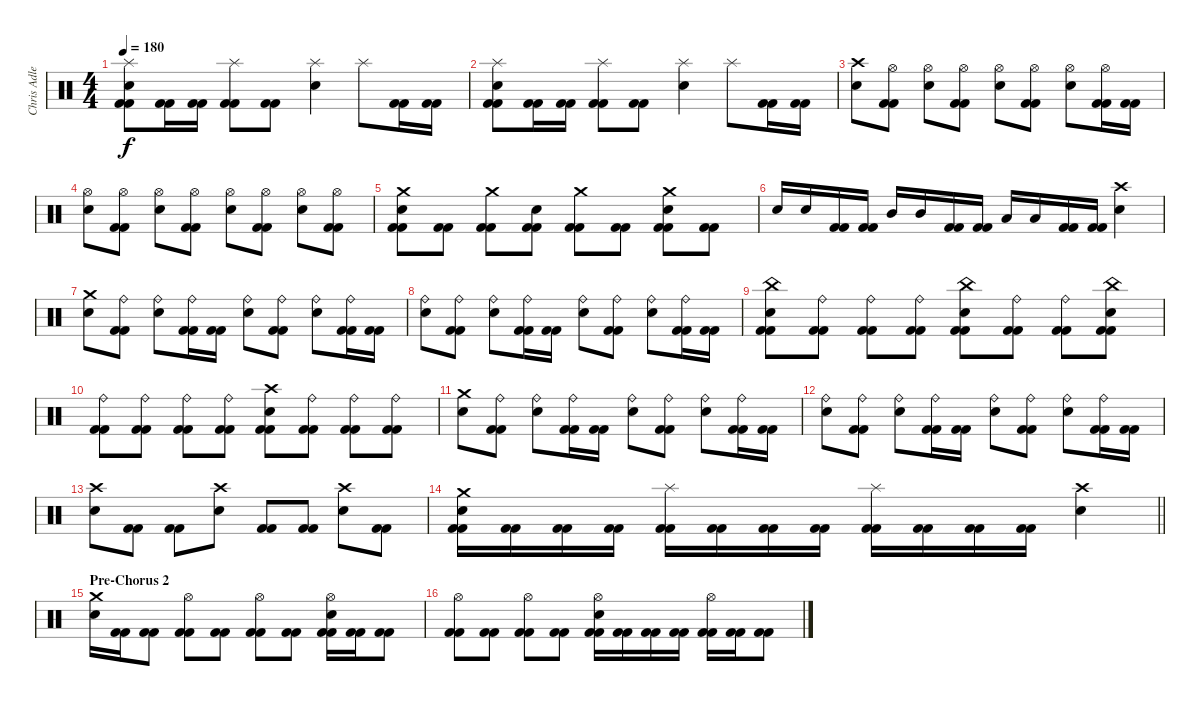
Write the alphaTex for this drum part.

\track ("Chris Adler" "Chris Adle") {instrument percussion}
\staff {score}
\articulation defaults
\ts (4 4)
\tempo 180
\clef neutral
\ks c
("Splash (hit)" "Electric Snare (hit)" "Kick (hit) 2" "Kick (hit) 2").8{dy f} ("Kick (hit) 2" "Kick (hit) 2").16 ("Kick (hit) 2" "Kick (hit) 2").16 ("Splash (hit)" "Kick (hit) 2" "Kick (hit) 2").8 ("Kick (hit) 2" "Kick (hit) 2").8 ("Splash (hit)" "Electric Snare (hit)").4 "Splash (hit)".8 ("Kick (hit) 2" "Kick (hit) 2").16 ("Kick (hit) 2" "Kick (hit) 2").16 |
("Splash (hit)" "Electric Snare (hit)" "Kick (hit) 2" "Kick (hit) 2").8 ("Kick (hit) 2" "Kick (hit) 2").16 ("Kick (hit) 2" "Kick (hit) 2").16 ("Splash (hit)" "Kick (hit) 2" "Kick (hit) 2").8 ("Kick (hit) 2" "Kick (hit) 2").8 ("Splash (hit)" "Electric Snare (hit)").4 "Splash (hit)".8 ("Kick (hit) 2" "Kick (hit) 2").16 ("Kick (hit) 2" "Kick (hit) 2").16 |
("Crash high (hit)" "Electric Snare (hit)").8 ("Hi-Hat (open)" "Kick (hit) 2" "Kick (hit) 2").8 ("Hi-Hat (open)" "Electric Snare (hit)").8 ("Hi-Hat (open)" "Kick (hit) 2" "Kick (hit) 2").8 ("Hi-Hat (open)" "Electric Snare (hit)").8 ("Hi-Hat (open)" "Kick (hit) 2" "Kick (hit) 2").8 ("Hi-Hat (open)" "Electric Snare (hit)").8 ("Hi-Hat (open)" "Kick (hit) 2" "Kick (hit) 2").16 ("Kick (hit) 2" "Kick (hit) 2").16 |
("Hi-Hat (open)" "Electric Snare (hit)").8 ("Hi-Hat (open)" "Kick (hit) 2" "Kick (hit) 2").8 ("Hi-Hat (open)" "Electric Snare (hit)").8 ("Hi-Hat (open)" "Kick (hit) 2" "Kick (hit) 2").8 ("Hi-Hat (open)" "Electric Snare (hit)").8 ("Hi-Hat (open)" "Kick (hit) 2" "Kick (hit) 2").8 ("Hi-Hat (open)" "Electric Snare (hit)").8 ("Hi-Hat (open)" "Kick (hit) 2" "Kick (hit) 2").8 |
("Crash medium (hit)" "Electric Snare (hit)" "Kick (hit) 2" "Kick (hit) 2").8 ("Kick (hit) 2" "Kick (hit) 2").8 ("Crash medium (hit)" "Kick (hit) 2" "Kick (hit) 2").8 ("Electric Snare (hit)" "Kick (hit) 2" "Kick (hit) 2").8 ("Crash medium (hit)" "Kick (hit) 2" "Kick (hit) 2").8 ("Kick (hit) 2" "Kick (hit) 2").8 ("Crash medium (hit)" "Electric Snare (hit)" "Kick (hit) 2" "Kick (hit) 2").8 ("Kick (hit) 2" "Kick (hit) 2").8 |
"Electric Snare (hit)".16 "Electric Snare (hit)".16 ("Kick (hit) 2" "Kick (hit) 2").16 ("Kick (hit) 2" "Kick (hit) 2").16 "Mid Tom (hit)".16 "Mid Tom (hit)".16 ("Kick (hit) 2" "Kick (hit) 2").16 ("Kick (hit) 2" "Kick (hit) 2").16 "Low Tom (hit)".16 "Low Tom (hit)".16 ("Kick (hit) 2" "Kick (hit) 2").16 ("Kick (hit) 2" "Kick (hit) 2").16 ("Crash high (hit)" "Electric Snare (hit)").4 |
("Crash medium (hit)" "Electric Snare (hit)").8 ("Ride (bell)" "Kick (hit) 2" "Kick (hit) 2").8 ("Ride (bell)" "Electric Snare (hit)").8 ("Ride (bell)" "Kick (hit) 2" "Kick (hit) 2").16 ("Kick (hit) 2" "Kick (hit) 2").16 ("Ride (bell)" "Electric Snare (hit)").8 ("Ride (bell)" "Kick (hit) 2" "Kick (hit) 2").8 ("Ride (bell)" "Electric Snare (hit)").8 ("Ride (bell)" "Kick (hit) 2" "Kick (hit) 2").16 ("Kick (hit) 2" "Kick (hit) 2").16 |
("Ride (bell)" "Electric Snare (hit)").8 ("Ride (bell)" "Kick (hit) 2" "Kick (hit) 2").8 ("Ride (bell)" "Electric Snare (hit)").8 ("Ride (bell)" "Kick (hit) 2" "Kick (hit) 2").16 ("Kick (hit) 2" "Kick (hit) 2").16 ("Ride (bell)" "Electric Snare (hit)").8 ("Ride (bell)" "Kick (hit) 2" "Kick (hit) 2").8 ("Ride (bell)" "Electric Snare (hit)").8 ("Ride (bell)" "Kick (hit) 2" "Kick (hit) 2").16 ("Kick (hit) 2" "Kick (hit) 2").16 |
("China (hit)" "Electric Snare (hit)" "Kick (hit) 2" "Kick (hit) 2").8 ("Ride (bell)" "Kick (hit) 2" "Kick (hit) 2").8 ("Ride (bell)" "Kick (hit) 2" "Kick (hit) 2").8 ("Ride (bell)" "Kick (hit) 2" "Kick (hit) 2").8 ("China (hit)" "Electric Snare (hit)" "Kick (hit) 2" "Kick (hit) 2").8 ("Ride (bell)" "Kick (hit) 2" "Kick (hit) 2").8 ("Ride (bell)" "Kick (hit) 2" "Kick (hit) 2").8 ("China (hit)" "Electric Snare (hit)" "Kick (hit) 2" "Kick (hit) 2").8 |
("Ride (bell)" "Kick (hit) 2" "Kick (hit) 2").8 ("Ride (bell)" "Kick (hit) 2" "Kick (hit) 2").8 ("Ride (bell)" "Kick (hit) 2" "Kick (hit) 2").8 ("Ride (bell)" "Kick (hit) 2" "Kick (hit) 2").8 ("Crash high (hit)" "Electric Snare (hit)" "Kick (hit) 2" "Kick (hit) 2").8 ("Ride (bell)" "Kick (hit) 2" "Kick (hit) 2").8 ("Ride (bell)" "Kick (hit) 2" "Kick (hit) 2").8 ("Ride (bell)" "Kick (hit) 2" "Kick (hit) 2").8 |
("Crash medium (hit)" "Electric Snare (hit)").8 ("Ride (bell)" "Kick (hit) 2" "Kick (hit) 2").8 ("Ride (bell)" "Electric Snare (hit)").8 ("Ride (bell)" "Kick (hit) 2" "Kick (hit) 2").16 ("Kick (hit) 2" "Kick (hit) 2").16 ("Ride (bell)" "Electric Snare (hit)").8 ("Ride (bell)" "Kick (hit) 2" "Kick (hit) 2").8 ("Ride (bell)" "Electric Snare (hit)").8 ("Ride (bell)" "Kick (hit) 2" "Kick (hit) 2").16 ("Kick (hit) 2" "Kick (hit) 2").16 |
("Ride (bell)" "Electric Snare (hit)").8 ("Ride (bell)" "Kick (hit) 2" "Kick (hit) 2").8 ("Ride (bell)" "Electric Snare (hit)").8 ("Ride (bell)" "Kick (hit) 2" "Kick (hit) 2").16 ("Kick (hit) 2" "Kick (hit) 2").16 ("Ride (bell)" "Electric Snare (hit)").8 ("Ride (bell)" "Kick (hit) 2" "Kick (hit) 2").8 ("Ride (bell)" "Electric Snare (hit)").8 ("Ride (bell)" "Kick (hit) 2" "Kick (hit) 2").16 ("Kick (hit) 2" "Kick (hit) 2").16 |
("Crash high (hit)" "Electric Snare (hit)").8 ("Kick (hit) 2" "Kick (hit) 2").8 ("Kick (hit) 2" "Kick (hit) 2").8 ("Crash high (hit)" "Electric Snare (hit)").8 ("Kick (hit) 2" "Kick (hit) 2").8 ("Kick (hit) 2" "Kick (hit) 2").8 ("Crash high (hit)" "Electric Snare (hit)").8 ("Kick (hit) 2" "Kick (hit) 2").8 |
\barLineRight lightlight
("Crash medium (hit)" "Electric Snare (hit)" "Kick (hit) 2" "Kick (hit) 2").16 ("Kick (hit) 2" "Kick (hit) 2").16 ("Kick (hit) 2" "Kick (hit) 2").16 ("Kick (hit) 2" "Kick (hit) 2").16 ("Splash (hit)" "Kick (hit) 2" "Kick (hit) 2").16 ("Kick (hit) 2" "Kick (hit) 2").16 ("Kick (hit) 2" "Kick (hit) 2").16 ("Kick (hit) 2" "Kick (hit) 2").16 ("Splash (hit)" "Kick (hit) 2" "Kick (hit) 2").16 ("Kick (hit) 2" "Kick (hit) 2").16 ("Kick (hit) 2" "Kick (hit) 2").16 ("Kick (hit) 2" "Kick (hit) 2").16 ("Crash high (hit)" "Electric Snare (hit)").4 |
\section ("" "Pre-Chorus 2")
("Crash medium (hit)" "Electric Snare (hit)").16 ("Kick (hit) 2" "Kick (hit) 2").16 ("Kick (hit) 2" "Kick (hit) 2").8 ("Hi-Hat (open)" "Kick (hit) 2" "Kick (hit) 2").8 ("Kick (hit) 2" "Kick (hit) 2").8 ("Hi-Hat (open)" "Kick (hit) 2" "Kick (hit) 2").8 ("Kick (hit) 2" "Kick (hit) 2").8 ("Hi-Hat (open)" "Electric Snare (hit)" "Kick (hit) 2" "Kick (hit) 2").16 ("Kick (hit) 2" "Kick (hit) 2").16 ("Kick (hit) 2" "Kick (hit) 2").8 |
("Hi-Hat (open)" "Kick (hit) 2" "Kick (hit) 2").8 ("Kick (hit) 2" "Kick (hit) 2").8 ("Hi-Hat (open)" "Kick (hit) 2" "Kick (hit) 2").8 ("Kick (hit) 2" "Kick (hit) 2").8 ("Hi-Hat (open)" "Electric Snare (hit)" "Kick (hit) 2" "Kick (hit) 2").16 ("Kick (hit) 2" "Kick (hit) 2").16 ("Kick (hit) 2" "Kick (hit) 2").16 ("Kick (hit) 2" "Kick (hit) 2").16 ("Hi-Hat (open)" "Kick (hit) 2" "Kick (hit) 2").16 ("Kick (hit) 2" "Kick (hit) 2").16 ("Kick (hit) 2" "Kick (hit) 2").8
